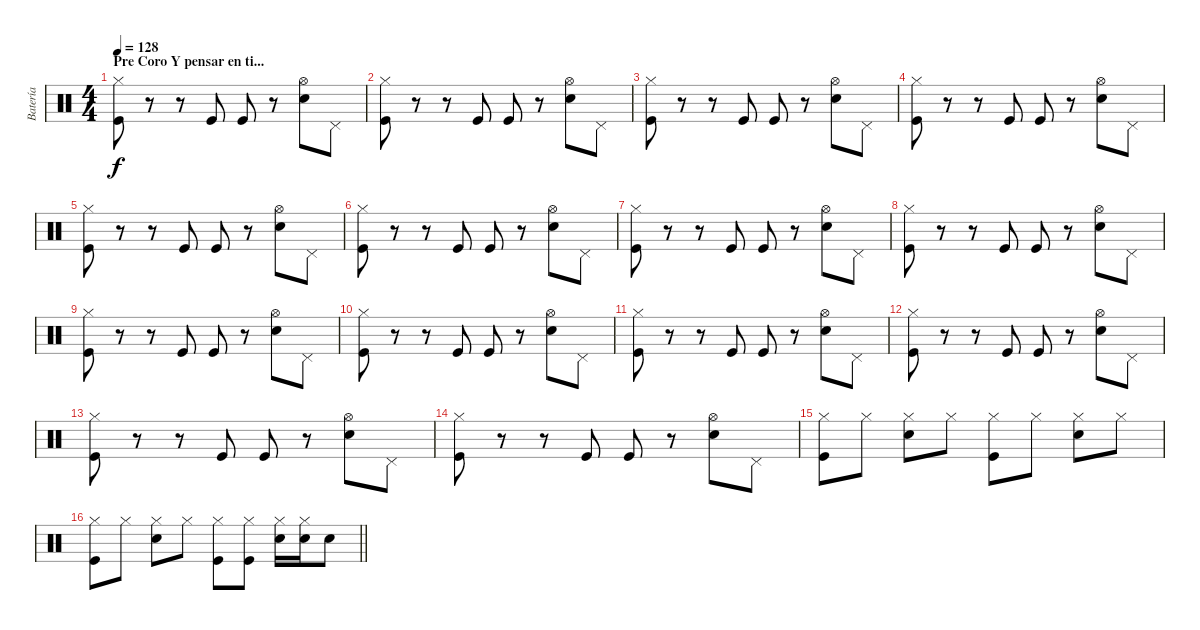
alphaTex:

\track ("Batería" "Batería") {instrument percussion}
\staff {score}
\articulation defaults
\ts (4 4)
\section ("" "Pre Coro Y pensar en ti...")
\tempo 128
\clef neutral
\ks c
("Hi-Hat (closed)" "Kick (hit)").8{dy f} r.8 r.8 "Kick (hit)".8 "Kick (hit)".8 r.8 ("Hi-Hat (open)" "Snare (hit) 2").8 "Pedal Hi-Hat (hit)".8 |
("Hi-Hat (closed)" "Kick (hit)").8 r.8 r.8 "Kick (hit)".8 "Kick (hit)".8 r.8 ("Hi-Hat (open)" "Snare (hit) 2").8 "Pedal Hi-Hat (hit)".8 |
("Hi-Hat (closed)" "Kick (hit)").8 r.8 r.8 "Kick (hit)".8 "Kick (hit)".8 r.8 ("Hi-Hat (open)" "Snare (hit) 2").8 "Pedal Hi-Hat (hit)".8 |
("Hi-Hat (closed)" "Kick (hit)").8 r.8 r.8 "Kick (hit)".8 "Kick (hit)".8 r.8 ("Hi-Hat (open)" "Snare (hit) 2").8 "Pedal Hi-Hat (hit)".8 |
("Hi-Hat (closed)" "Kick (hit)").8 r.8 r.8 "Kick (hit)".8 "Kick (hit)".8 r.8 ("Hi-Hat (open)" "Snare (hit) 2").8 "Pedal Hi-Hat (hit)".8 |
("Hi-Hat (closed)" "Kick (hit)").8 r.8 r.8 "Kick (hit)".8 "Kick (hit)".8 r.8 ("Hi-Hat (open)" "Snare (hit) 2").8 "Pedal Hi-Hat (hit)".8 |
("Hi-Hat (closed)" "Kick (hit)").8 r.8 r.8 "Kick (hit)".8 "Kick (hit)".8 r.8 ("Hi-Hat (open)" "Snare (hit) 2").8 "Pedal Hi-Hat (hit)".8 |
("Hi-Hat (closed)" "Kick (hit)").8 r.8 r.8 "Kick (hit)".8 "Kick (hit)".8 r.8 ("Hi-Hat (open)" "Snare (hit) 2").8 "Pedal Hi-Hat (hit)".8 |
("Hi-Hat (closed)" "Kick (hit)").8 r.8 r.8 "Kick (hit)".8 "Kick (hit)".8 r.8 ("Hi-Hat (open)" "Snare (hit) 2").8 "Pedal Hi-Hat (hit)".8 |
("Hi-Hat (closed)" "Kick (hit)").8 r.8 r.8 "Kick (hit)".8 "Kick (hit)".8 r.8 ("Hi-Hat (open)" "Snare (hit) 2").8 "Pedal Hi-Hat (hit)".8 |
("Hi-Hat (closed)" "Kick (hit)").8 r.8 r.8 "Kick (hit)".8 "Kick (hit)".8 r.8 ("Hi-Hat (open)" "Snare (hit) 2").8 "Pedal Hi-Hat (hit)".8 |
("Hi-Hat (closed)" "Kick (hit)").8 r.8 r.8 "Kick (hit)".8 "Kick (hit)".8 r.8 ("Hi-Hat (open)" "Snare (hit) 2").8 "Pedal Hi-Hat (hit)".8 |
("Hi-Hat (closed)" "Kick (hit)").8 r.8 r.8 "Kick (hit)".8 "Kick (hit)".8 r.8 ("Hi-Hat (open)" "Snare (hit) 2").8 "Pedal Hi-Hat (hit)".8 |
("Hi-Hat (closed)" "Kick (hit)").8 r.8 r.8 "Kick (hit)".8 "Kick (hit)".8 r.8 ("Hi-Hat (open)" "Snare (hit) 2").8 "Pedal Hi-Hat (hit)".8 |
("Hi-Hat (closed)" "Kick (hit)").8 "Hi-Hat (closed)".8 ("Hi-Hat (closed)" "Snare (hit) 2").8 "Hi-Hat (closed)".8 ("Hi-Hat (closed)" "Kick (hit)").8 "Hi-Hat (closed)".8 ("Hi-Hat (closed)" "Snare (hit) 2").8 "Hi-Hat (closed)".8 |
\barLineRight lightlight
("Hi-Hat (closed)" "Kick (hit)").8 "Hi-Hat (closed)".8 ("Hi-Hat (closed)" "Snare (hit) 2").8 "Hi-Hat (closed)".8 ("Hi-Hat (closed)" "Kick (hit)").8 ("Hi-Hat (closed)" "Kick (hit)").8 ("Hi-Hat (closed)" "Snare (hit) 2").16 ("Hi-Hat (closed)" "Snare (hit) 2").16 "Snare (hit) 2".8
